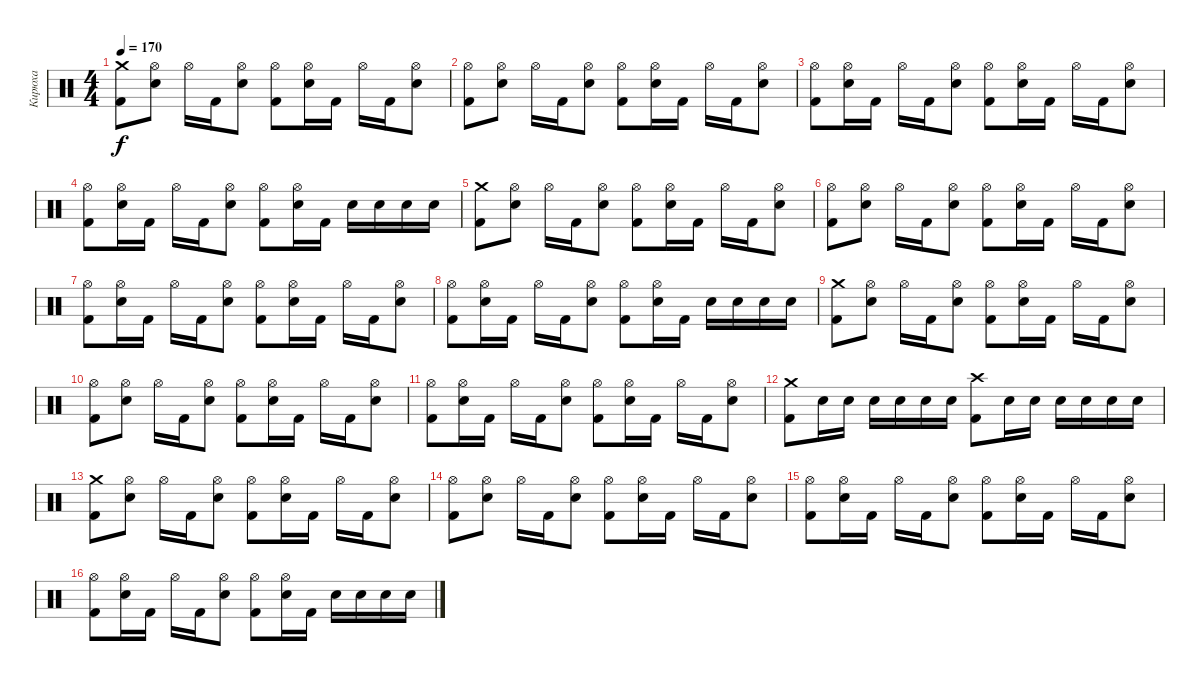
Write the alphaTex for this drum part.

\track ("Кирюха" "Кирюха") {instrument percussion}
\staff {score}
\articulation defaults
\ts (4 4)
\tempo 170
\clef neutral
\ks c
("Kick (hit) 2" "Crash medium (hit)").8{dy f} ("Electric Snare (hit)" "Hi-Hat (open)").8 "Hi-Hat (open)".16 "Kick (hit) 2".16 ("Electric Snare (hit)" "Hi-Hat (open)").8 ("Kick (hit) 2" "Hi-Hat (open)").8 ("Electric Snare (hit)" "Hi-Hat (open)").16 "Kick (hit) 2".16 "Hi-Hat (open)".16 "Kick (hit) 2".16 ("Electric Snare (hit)" "Hi-Hat (open)").8 |
("Kick (hit) 2" "Hi-Hat (open)").8 ("Electric Snare (hit)" "Hi-Hat (open)").8 "Hi-Hat (open)".16 "Kick (hit) 2".16 ("Electric Snare (hit)" "Hi-Hat (open)").8 ("Kick (hit) 2" "Hi-Hat (open)").8 ("Electric Snare (hit)" "Hi-Hat (open)").16 "Kick (hit) 2".16 "Hi-Hat (open)".16 "Kick (hit) 2".16 ("Electric Snare (hit)" "Hi-Hat (open)").8 |
("Kick (hit) 2" "Hi-Hat (open)").8 ("Electric Snare (hit)" "Hi-Hat (open)").16 "Kick (hit) 2".16 "Hi-Hat (open)".16 "Kick (hit) 2".16 ("Electric Snare (hit)" "Hi-Hat (open)").8 ("Kick (hit) 2" "Hi-Hat (open)").8 ("Electric Snare (hit)" "Hi-Hat (open)").16 "Kick (hit) 2".16 "Hi-Hat (open)".16 "Kick (hit) 2".16 ("Electric Snare (hit)" "Hi-Hat (open)").8 |
("Kick (hit) 2" "Hi-Hat (open)").8 ("Electric Snare (hit)" "Hi-Hat (open)").16 "Kick (hit) 2".16 "Hi-Hat (open)".16 "Kick (hit) 2".16 ("Electric Snare (hit)" "Hi-Hat (open)").8 ("Kick (hit) 2" "Hi-Hat (open)").8 ("Electric Snare (hit)" "Hi-Hat (open)").16 "Kick (hit) 2".16 "Electric Snare (hit)".16 "Electric Snare (hit)".16 "Electric Snare (hit)".16 "Electric Snare (hit)".16 |
("Kick (hit) 2" "Crash medium (hit)").8 ("Electric Snare (hit)" "Hi-Hat (open)").8 "Hi-Hat (open)".16 "Kick (hit) 2".16 ("Electric Snare (hit)" "Hi-Hat (open)").8 ("Kick (hit) 2" "Hi-Hat (open)").8 ("Electric Snare (hit)" "Hi-Hat (open)").16 "Kick (hit) 2".16 "Hi-Hat (open)".16 "Kick (hit) 2".16 ("Electric Snare (hit)" "Hi-Hat (open)").8 |
("Kick (hit) 2" "Hi-Hat (open)").8 ("Electric Snare (hit)" "Hi-Hat (open)").8 "Hi-Hat (open)".16 "Kick (hit) 2".16 ("Electric Snare (hit)" "Hi-Hat (open)").8 ("Kick (hit) 2" "Hi-Hat (open)").8 ("Electric Snare (hit)" "Hi-Hat (open)").16 "Kick (hit) 2".16 "Hi-Hat (open)".16 "Kick (hit) 2".16 ("Electric Snare (hit)" "Hi-Hat (open)").8 |
("Kick (hit) 2" "Hi-Hat (open)").8 ("Electric Snare (hit)" "Hi-Hat (open)").16 "Kick (hit) 2".16 "Hi-Hat (open)".16 "Kick (hit) 2".16 ("Electric Snare (hit)" "Hi-Hat (open)").8 ("Kick (hit) 2" "Hi-Hat (open)").8 ("Electric Snare (hit)" "Hi-Hat (open)").16 "Kick (hit) 2".16 "Hi-Hat (open)".16 "Kick (hit) 2".16 ("Electric Snare (hit)" "Hi-Hat (open)").8 |
("Kick (hit) 2" "Hi-Hat (open)").8 ("Electric Snare (hit)" "Hi-Hat (open)").16 "Kick (hit) 2".16 "Hi-Hat (open)".16 "Kick (hit) 2".16 ("Electric Snare (hit)" "Hi-Hat (open)").8 ("Kick (hit) 2" "Hi-Hat (open)").8 ("Electric Snare (hit)" "Hi-Hat (open)").16 "Kick (hit) 2".16 "Electric Snare (hit)".16 "Electric Snare (hit)".16 "Electric Snare (hit)".16 "Electric Snare (hit)".16 |
("Kick (hit) 2" "Crash medium (hit)").8 ("Electric Snare (hit)" "Hi-Hat (open)").8 "Hi-Hat (open)".16 "Kick (hit) 2".16 ("Electric Snare (hit)" "Hi-Hat (open)").8 ("Kick (hit) 2" "Hi-Hat (open)").8 ("Electric Snare (hit)" "Hi-Hat (open)").16 "Kick (hit) 2".16 "Hi-Hat (open)".16 "Kick (hit) 2".16 ("Electric Snare (hit)" "Hi-Hat (open)").8 |
("Kick (hit) 2" "Hi-Hat (open)").8 ("Electric Snare (hit)" "Hi-Hat (open)").8 "Hi-Hat (open)".16 "Kick (hit) 2".16 ("Electric Snare (hit)" "Hi-Hat (open)").8 ("Kick (hit) 2" "Hi-Hat (open)").8 ("Electric Snare (hit)" "Hi-Hat (open)").16 "Kick (hit) 2".16 "Hi-Hat (open)".16 "Kick (hit) 2".16 ("Electric Snare (hit)" "Hi-Hat (open)").8 |
("Kick (hit) 2" "Hi-Hat (open)").8 ("Electric Snare (hit)" "Hi-Hat (open)").16 "Kick (hit) 2".16 "Hi-Hat (open)".16 "Kick (hit) 2".16 ("Electric Snare (hit)" "Hi-Hat (open)").8 ("Kick (hit) 2" "Hi-Hat (open)").8 ("Electric Snare (hit)" "Hi-Hat (open)").16 "Kick (hit) 2".16 "Hi-Hat (open)".16 "Kick (hit) 2".16 ("Electric Snare (hit)" "Hi-Hat (open)").8 |
("Kick (hit) 2" "Crash medium (hit)").8 "Electric Snare (hit)".16 "Electric Snare (hit)".16 "Electric Snare (hit)".16 "Electric Snare (hit)".16 "Electric Snare (hit)".16 "Electric Snare (hit)".16 ("Kick (hit) 2" "Crash high (hit)").8 "Electric Snare (hit)".16 "Electric Snare (hit)".16 "Electric Snare (hit)".16 "Electric Snare (hit)".16 "Electric Snare (hit)".16 "Electric Snare (hit)".16 |
("Kick (hit) 2" "Crash medium (hit)").8 ("Electric Snare (hit)" "Hi-Hat (open)").8 "Hi-Hat (open)".16 "Kick (hit) 2".16 ("Electric Snare (hit)" "Hi-Hat (open)").8 ("Kick (hit) 2" "Hi-Hat (open)").8 ("Electric Snare (hit)" "Hi-Hat (open)").16 "Kick (hit) 2".16 "Hi-Hat (open)".16 "Kick (hit) 2".16 ("Electric Snare (hit)" "Hi-Hat (open)").8 |
("Kick (hit) 2" "Hi-Hat (open)").8 ("Electric Snare (hit)" "Hi-Hat (open)").8 "Hi-Hat (open)".16 "Kick (hit) 2".16 ("Electric Snare (hit)" "Hi-Hat (open)").8 ("Kick (hit) 2" "Hi-Hat (open)").8 ("Electric Snare (hit)" "Hi-Hat (open)").16 "Kick (hit) 2".16 "Hi-Hat (open)".16 "Kick (hit) 2".16 ("Electric Snare (hit)" "Hi-Hat (open)").8 |
("Kick (hit) 2" "Hi-Hat (open)").8 ("Electric Snare (hit)" "Hi-Hat (open)").16 "Kick (hit) 2".16 "Hi-Hat (open)".16 "Kick (hit) 2".16 ("Electric Snare (hit)" "Hi-Hat (open)").8 ("Kick (hit) 2" "Hi-Hat (open)").8 ("Electric Snare (hit)" "Hi-Hat (open)").16 "Kick (hit) 2".16 "Hi-Hat (open)".16 "Kick (hit) 2".16 ("Electric Snare (hit)" "Hi-Hat (open)").8 |
("Kick (hit) 2" "Hi-Hat (open)").8 ("Electric Snare (hit)" "Hi-Hat (open)").16 "Kick (hit) 2".16 "Hi-Hat (open)".16 "Kick (hit) 2".16 ("Electric Snare (hit)" "Hi-Hat (open)").8 ("Kick (hit) 2" "Hi-Hat (open)").8 ("Electric Snare (hit)" "Hi-Hat (open)").16 "Kick (hit) 2".16 "Electric Snare (hit)".16 "Electric Snare (hit)".16 "Electric Snare (hit)".16 "Electric Snare (hit)".16
